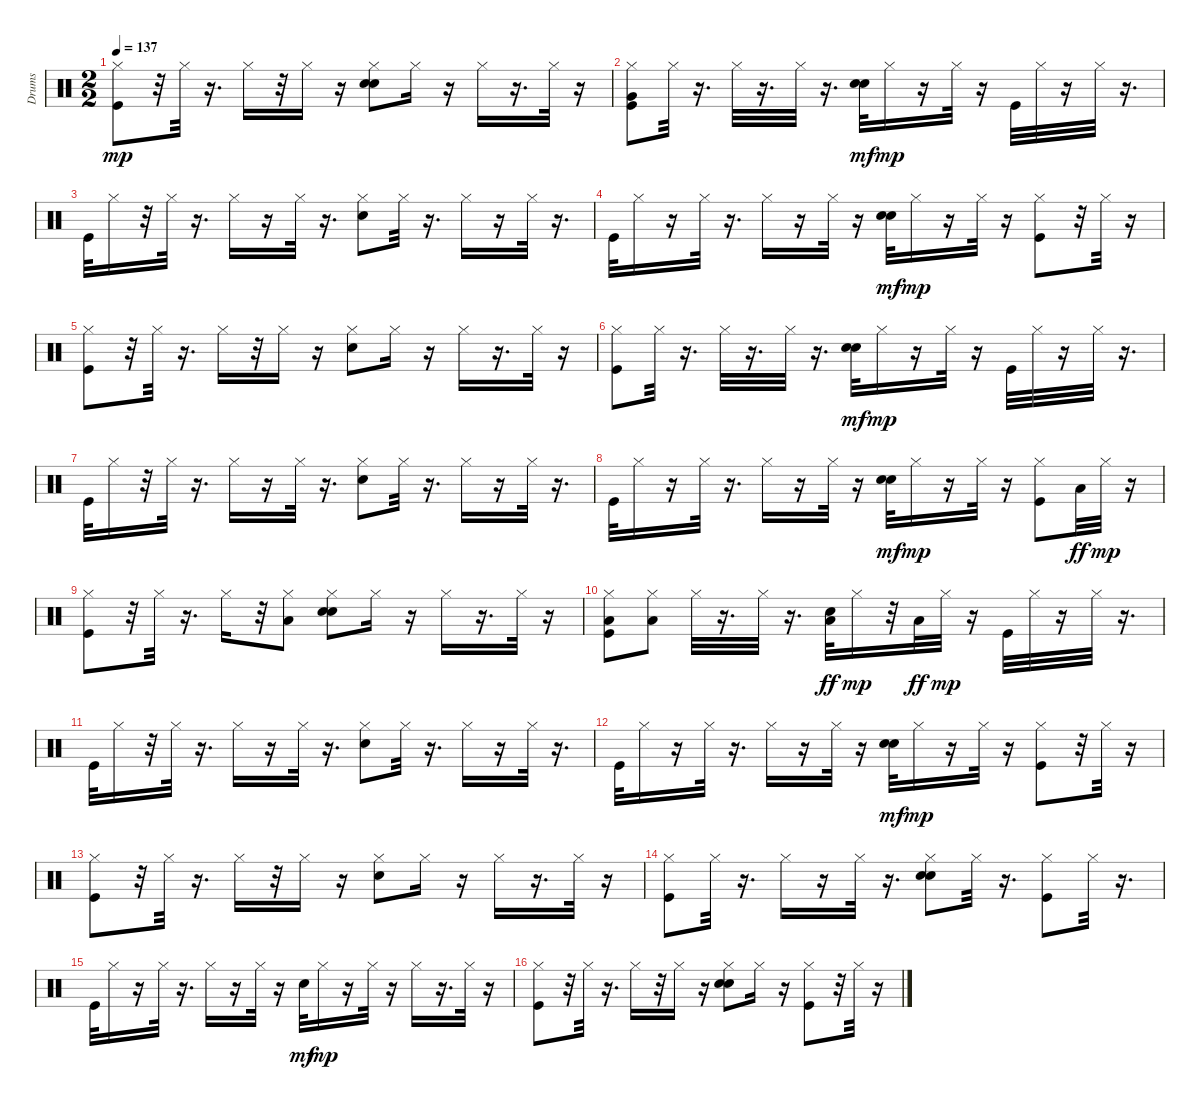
\track ("Drums" "Drums") {instrument percussion}
\staff {score}
\articulation defaults
\ts (2 2)
\tempo 137
\clef neutral
\ks c
("Kick (hit)" "Hi-Hat (closed)").8{dy mp} r.32 "Hi-Hat (closed)".32 r.16{d} "Hi-Hat (closed)".16 r.32 "Hi-Hat (closed)".16 r.16 ("Snare (hit) 2" "Hand Clap (hit)" "Hi-Hat (closed)").8 "Hi-Hat (closed)".16 r.16 "Hi-Hat (closed)".16 r.16{d} "Hi-Hat (closed)".32 r.16 |
("Kick (hit)" "Very Low Tom (hit)" "Hi-Hat (closed)").8 "Hi-Hat (closed)".32 r.16{d} "Hi-Hat (closed)".32 r.16{d} "Hi-Hat (closed)".32 r.16{d} ("Snare (hit) 2" "Hand Clap (hit)").32{dy mf} "Hi-Hat (closed)".16{dy mp} r.16 "Hi-Hat (closed)".32 r.16 "Kick (hit)".32 "Hi-Hat (closed)".32 r.16 "Hi-Hat (closed)".32 r.16{d} |
"Kick (hit)".32 "Hi-Hat (closed)".16 r.32 "Hi-Hat (closed)".32 r.16{d} "Hi-Hat (closed)".16 r.16 "Hi-Hat (closed)".32 r.16{d} ("Snare (hit) 2" "Hi-Hat (closed)").8 "Hi-Hat (closed)".32 r.16{d} "Hi-Hat (closed)".16 r.16 "Hi-Hat (closed)".32 r.16{d} |
"Kick (hit)".32 "Hi-Hat (closed)".16 r.16 "Hi-Hat (closed)".32 r.16{d} "Hi-Hat (closed)".16 r.16 "Hi-Hat (closed)".32 r.16 ("Snare (hit) 2" "Hand Clap (hit)").32{dy mf} "Hi-Hat (closed)".16{dy mp} r.16 "Hi-Hat (closed)".32 r.16 ("Kick (hit)" "Hi-Hat (closed)").8 r.32 "Hi-Hat (closed)".32 r.16 |
("Kick (hit)" "Hi-Hat (closed)").8 r.32 "Hi-Hat (closed)".32 r.16{d} "Hi-Hat (closed)".16 r.32 "Hi-Hat (closed)".16 r.16 ("Snare (hit) 2" "Hi-Hat (closed)").8 "Hi-Hat (closed)".16 r.16 "Hi-Hat (closed)".16 r.16{d} "Hi-Hat (closed)".32 r.16 |
("Kick (hit)" "Hi-Hat (closed)").8 "Hi-Hat (closed)".32 r.16{d} "Hi-Hat (closed)".32 r.16{d} "Hi-Hat (closed)".32 r.16{d} ("Snare (hit) 2" "Hand Clap (hit)").32{dy mf} "Hi-Hat (closed)".16{dy mp} r.16 "Hi-Hat (closed)".32 r.16 "Kick (hit)".32 "Hi-Hat (closed)".32 r.16 "Hi-Hat (closed)".32 r.16{d} |
"Kick (hit)".32 "Hi-Hat (closed)".16 r.32 "Hi-Hat (closed)".32 r.16{d} "Hi-Hat (closed)".16 r.16 "Hi-Hat (closed)".32 r.16{d} ("Snare (hit) 2" "Hi-Hat (closed)").8 "Hi-Hat (closed)".32 r.16{d} "Hi-Hat (closed)".16 r.16 "Hi-Hat (closed)".32 r.16{d} |
"Kick (hit)".32 "Hi-Hat (closed)".16 r.16 "Hi-Hat (closed)".32 r.16{d} "Hi-Hat (closed)".16 r.16 "Hi-Hat (closed)".32 r.16 ("Snare (hit) 2" "Hand Clap (hit)").32{dy mf} "Hi-Hat (closed)".16{dy mp} r.16 "Hi-Hat (closed)".32 r.16 ("Kick (hit)" "Hi-Hat (closed)").8 "Low Tom (hit)".32{dy ff} "Hi-Hat (closed)".32{dy mp} r.16 |
("Kick (hit)" "Hi-Hat (closed)").8 r.32 "Hi-Hat (closed)".32 r.16{d} "Hi-Hat (closed)".16 r.32 ("Low Tom (hit)" "Hi-Hat (closed)").8 ("Snare (hit) 2" "Hand Clap (hit)" "Hi-Hat (closed)").8 "Hi-Hat (closed)".16 r.16 "Hi-Hat (closed)".16 r.16{d} "Hi-Hat (closed)".32 r.16 |
("Kick (hit)" "Low Tom (hit)" "Hi-Hat (closed)").8 ("Low Tom (hit)" "Hi-Hat (closed)").8 "Hi-Hat (closed)".32 r.16{d} "Hi-Hat (closed)".32 r.16{d} ("Snare (hit) 2" "Low Tom (hit)").32{dy ff} "Hi-Hat (closed)".16{dy mp} r.32 "Low Tom (hit)".32{dy ff} "Hi-Hat (closed)".32{dy mp} r.16 "Kick (hit)".32 "Hi-Hat (closed)".32 r.16 "Hi-Hat (closed)".32 r.16{d} |
"Kick (hit)".32 "Hi-Hat (closed)".16 r.32 "Hi-Hat (closed)".32 r.16{d} "Hi-Hat (closed)".16 r.16 "Hi-Hat (closed)".32 r.16{d} ("Snare (hit) 2" "Hi-Hat (closed)").8 "Hi-Hat (closed)".32 r.16{d} "Hi-Hat (closed)".16 r.16 "Hi-Hat (closed)".32 r.16{d} |
"Kick (hit)".32 "Hi-Hat (closed)".16 r.16 "Hi-Hat (closed)".32 r.16{d} "Hi-Hat (closed)".16 r.16 "Hi-Hat (closed)".32 r.16 ("Snare (hit) 2" "Hand Clap (hit)").32{dy mf} "Hi-Hat (closed)".16{dy mp} r.16 "Hi-Hat (closed)".32 r.16 ("Kick (hit)" "Hi-Hat (closed)").8 r.32 "Hi-Hat (closed)".32 r.16 |
("Kick (hit)" "Hi-Hat (closed)").8 r.32 "Hi-Hat (closed)".32 r.16{d} "Hi-Hat (closed)".16 r.32 "Hi-Hat (closed)".16 r.16 ("Snare (hit) 2" "Hi-Hat (closed)").8 "Hi-Hat (closed)".16 r.16 "Hi-Hat (closed)".16 r.16{d} "Hi-Hat (closed)".32 r.16 |
("Kick (hit)" "Hi-Hat (closed)").8 "Hi-Hat (closed)".32 r.16{d} "Hi-Hat (closed)".16 r.16 "Hi-Hat (closed)".32 r.16{d} ("Snare (hit) 2" "Hand Clap (hit)" "Hi-Hat (closed)").8 "Hi-Hat (closed)".32 r.16{d} ("Kick (hit)" "Hi-Hat (closed)").8 "Hi-Hat (closed)".32 r.16{d} |
"Kick (hit)".32 "Hi-Hat (closed)".16 r.16 "Hi-Hat (closed)".32 r.16{d} "Hi-Hat (closed)".16 r.16 "Hi-Hat (closed)".32 r.16 "Snare (hit) 2".32{dy mf} "Hi-Hat (closed)".16{dy mp} r.16 "Hi-Hat (closed)".32 r.16 "Hi-Hat (closed)".16 r.16{d} "Hi-Hat (closed)".32 r.16 |
("Kick (hit)" "Hi-Hat (closed)").8 r.32 "Hi-Hat (closed)".32 r.16{d} "Hi-Hat (closed)".16 r.32 "Hi-Hat (closed)".16 r.16 ("Snare (hit) 2" "Hand Clap (hit)" "Hi-Hat (closed)").8 "Hi-Hat (closed)".16 r.16 ("Kick (hit)" "Hi-Hat (closed)").8 r.32 "Hi-Hat (closed)".32 r.16
